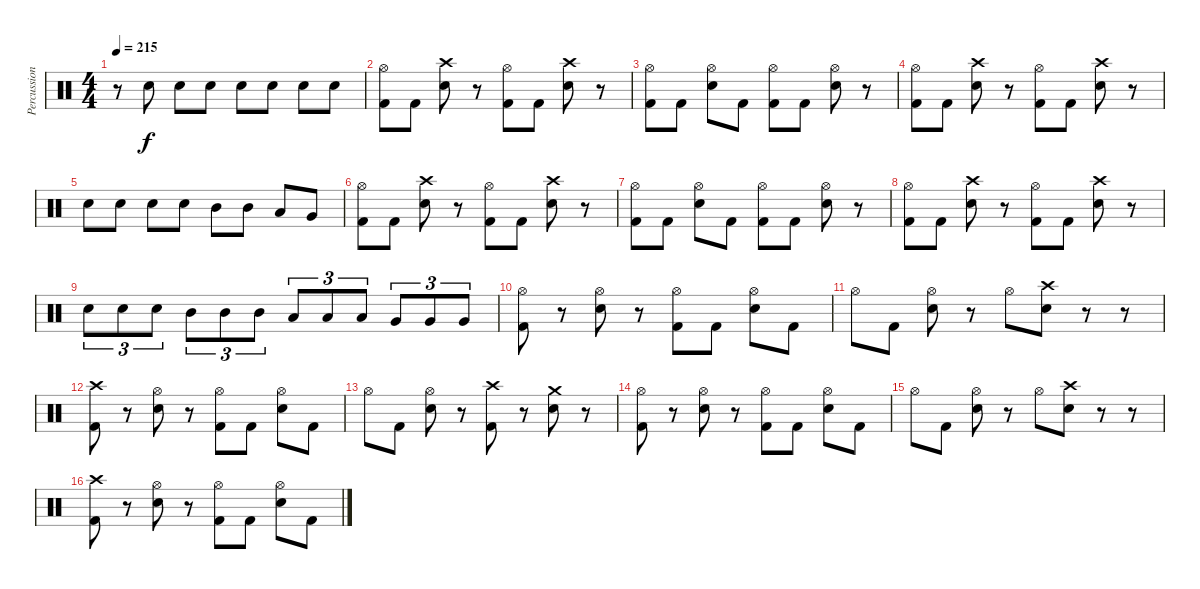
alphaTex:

\track ("Percussion" "Percussion") {instrument percussion}
\staff {score}
\articulation defaults
\ts (4 4)
\tempo 215
\clef neutral
\ks c
r.8{dy f} "Snare (hit) 2".8 "Snare (hit) 2".8 "Snare (hit) 2".8 "Snare (hit) 2".8 "Snare (hit) 2".8 "Snare (hit) 2".8 "Snare (hit) 2".8 |
("Hi-Hat (open)" "Kick (hit) 2").8 "Kick (hit) 2".8 ("Crash high (hit)" "Snare (hit) 2").8 r.8 ("Hi-Hat (open)" "Kick (hit) 2").8 "Kick (hit) 2".8 ("Crash high (hit)" "Snare (hit) 2").8 r.8 |
("Hi-Hat (open)" "Kick (hit) 2").8 "Kick (hit) 2".8 ("Hi-Hat (open)" "Snare (hit) 2").8 "Kick (hit) 2".8 ("Hi-Hat (open)" "Kick (hit) 2").8 "Kick (hit) 2".8 ("Hi-Hat (open)" "Snare (hit) 2").8 r.8 |
("Hi-Hat (open)" "Kick (hit) 2").8 "Kick (hit) 2".8 ("Crash high (hit)" "Snare (hit) 2").8 r.8 ("Hi-Hat (open)" "Kick (hit) 2").8 "Kick (hit) 2".8 ("Crash high (hit)" "Snare (hit) 2").8 r.8 |
"Snare (hit) 2".8 "Snare (hit) 2".8 "Snare (hit) 2".8 "Snare (hit) 2".8 "Mid Tom (hit)".8 "Mid Tom (hit)".8 "Low Tom (hit)".8 "Very Low Tom (hit)".8 |
("Hi-Hat (open)" "Kick (hit) 2").8 "Kick (hit) 2".8 ("Crash high (hit)" "Snare (hit) 2").8 r.8 ("Hi-Hat (open)" "Kick (hit) 2").8 "Kick (hit) 2".8 ("Crash high (hit)" "Snare (hit) 2").8 r.8 |
("Hi-Hat (open)" "Kick (hit) 2").8 "Kick (hit) 2".8 ("Hi-Hat (open)" "Snare (hit) 2").8 "Kick (hit) 2".8 ("Hi-Hat (open)" "Kick (hit) 2").8 "Kick (hit) 2".8 ("Hi-Hat (open)" "Snare (hit) 2").8 r.8 |
("Hi-Hat (open)" "Kick (hit) 2").8 "Kick (hit) 2".8 ("Crash high (hit)" "Snare (hit) 2").8 r.8 ("Hi-Hat (open)" "Kick (hit) 2").8 "Kick (hit) 2".8 ("Crash high (hit)" "Snare (hit) 2").8 r.8 |
"Snare (hit) 2".8{tu (3 2)} "Snare (hit) 2".8{tu (3 2)} "Snare (hit) 2".8{tu (3 2)} "Mid Tom (hit)".8{tu (3 2)} "Mid Tom (hit)".8{tu (3 2)} "Mid Tom (hit)".8{tu (3 2)} "Low Tom (hit)".8{tu (3 2)} "Low Tom (hit)".8{tu (3 2)} "Low Tom (hit)".8{tu (3 2)} "Very Low Tom (hit)".8{tu (3 2)} "Very Low Tom (hit)".8{tu (3 2)} "Very Low Tom (hit)".8{tu (3 2)} |
("Hi-Hat (open)" "Kick (hit) 2").8 r.8 ("Hi-Hat (open)" "Snare (hit) 2").8 r.8 ("Hi-Hat (open)" "Kick (hit) 2").8 "Kick (hit) 2".8 ("Hi-Hat (open)" "Snare (hit) 2").8 "Kick (hit) 2".8 |
"Hi-Hat (open)".8 "Kick (hit) 2".8 ("Hi-Hat (open)" "Snare (hit) 2").8 r.8 "Hi-Hat (open)".8 ("Crash high (hit)" "Snare (hit) 2").8 r.8 r.8 |
("Crash high (hit)" "Kick (hit) 2").8 r.8 ("Hi-Hat (open)" "Snare (hit) 2").8 r.8 ("Hi-Hat (open)" "Kick (hit) 2").8 "Kick (hit) 2".8 ("Hi-Hat (open)" "Snare (hit) 2").8 "Kick (hit) 2".8 |
"Hi-Hat (open)".8 "Kick (hit) 2".8 ("Hi-Hat (open)" "Snare (hit) 2").8 r.8 ("Crash high (hit)" "Kick (hit) 2").8 r.8 ("Crash medium (hit)" "Snare (hit) 2").8 r.8 |
("Hi-Hat (open)" "Kick (hit) 2").8 r.8 ("Hi-Hat (open)" "Snare (hit) 2").8 r.8 ("Hi-Hat (open)" "Kick (hit) 2").8 "Kick (hit) 2".8 ("Hi-Hat (open)" "Snare (hit) 2").8 "Kick (hit) 2".8 |
"Hi-Hat (open)".8 "Kick (hit) 2".8 ("Hi-Hat (open)" "Snare (hit) 2").8 r.8 "Hi-Hat (open)".8 ("Crash high (hit)" "Snare (hit) 2").8 r.8 r.8 |
("Crash high (hit)" "Kick (hit) 2").8 r.8 ("Hi-Hat (open)" "Snare (hit) 2").8 r.8 ("Hi-Hat (open)" "Kick (hit) 2").8 "Kick (hit) 2".8 ("Hi-Hat (open)" "Snare (hit) 2").8 "Kick (hit) 2".8
